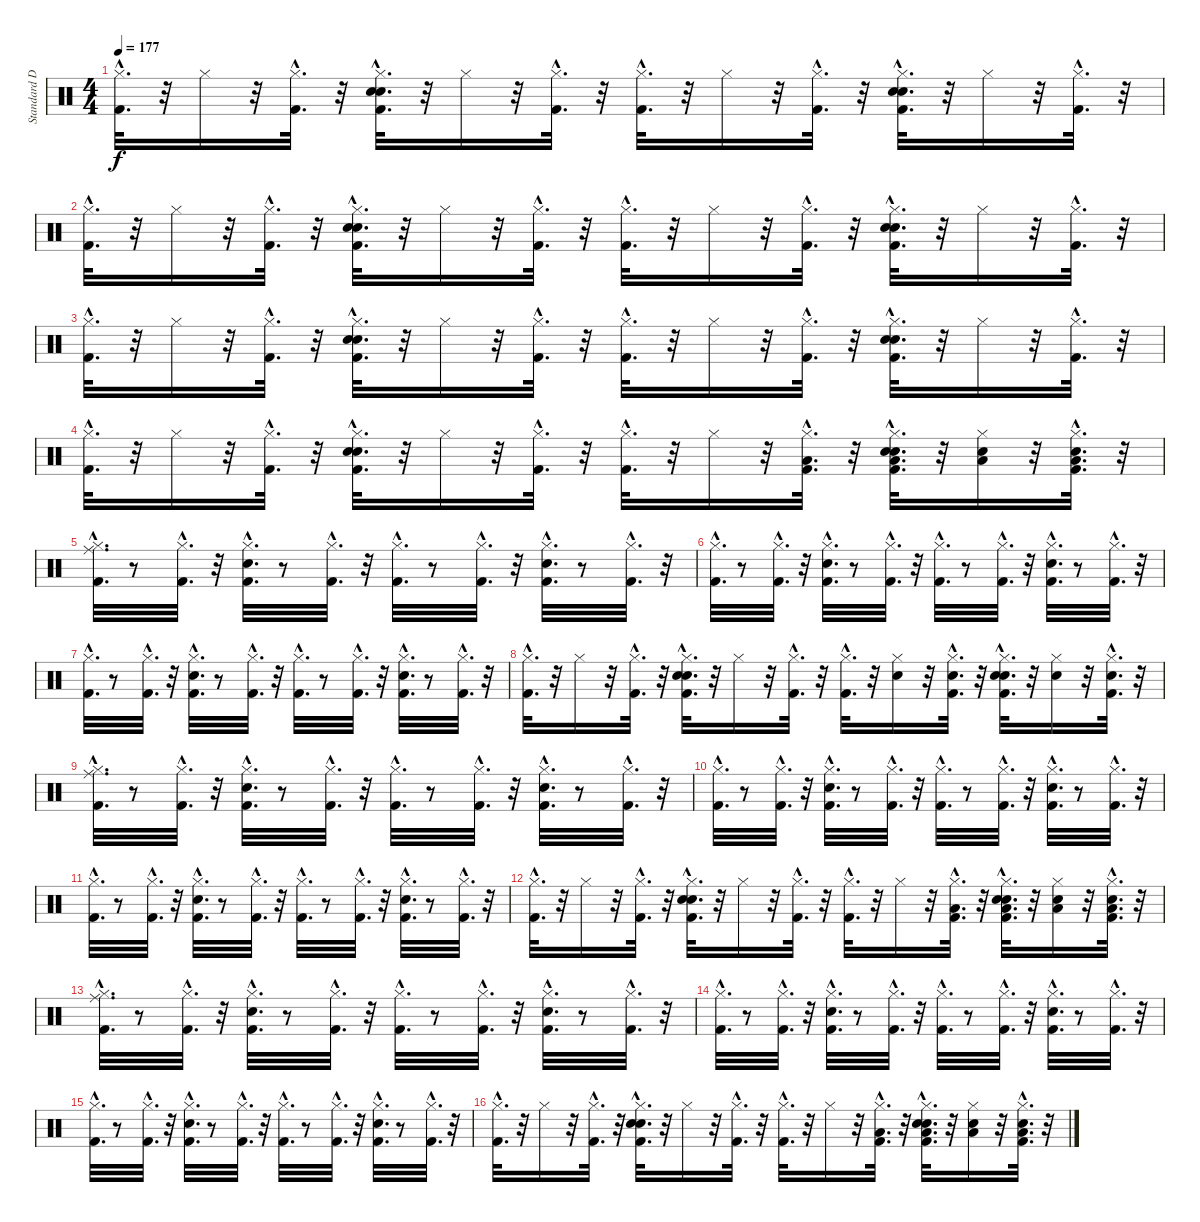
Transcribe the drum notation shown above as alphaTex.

\track ("Standard Drums" "Standard D") {instrument percussion}
\staff {score}
\articulation defaults
\ts (4 4)
\tempo 177
\clef neutral
\ks c
("Kick (hit) 2"{hac} "Hi-Hat (closed)"{hac}).32{d dy f} r.32 "Hi-Hat (closed)".16 r.32 ("Kick (hit) 2"{hac} "Hi-Hat (closed)"{hac}).32{d} r.32 ("Kick (hit) 2"{hac} "Snare (hit) 2"{hac} "Hi-Hat (closed)"{hac} "Hand Clap (hit)"{hac}).32{d} r.32 "Hi-Hat (closed)".16 r.32 ("Kick (hit) 2"{hac} "Hi-Hat (closed)"{hac}).32{d} r.32 ("Kick (hit) 2"{hac} "Hi-Hat (closed)"{hac}).32{d} r.32 "Hi-Hat (closed)".16 r.32 ("Kick (hit) 2"{hac} "Hi-Hat (closed)"{hac}).32{d} r.32 ("Kick (hit) 2"{hac} "Snare (hit) 2"{hac} "Hi-Hat (closed)"{hac} "Hand Clap (hit)"{hac}).32{d} r.32 "Hi-Hat (closed)".16 r.32 ("Kick (hit) 2"{hac} "Hi-Hat (closed)"{hac}).32{d} r.32 |
("Kick (hit) 2"{hac} "Hi-Hat (closed)"{hac}).32{d} r.32 "Hi-Hat (closed)".16 r.32 ("Kick (hit) 2"{hac} "Hi-Hat (closed)"{hac}).32{d} r.32 ("Kick (hit) 2"{hac} "Snare (hit) 2"{hac} "Hi-Hat (closed)"{hac} "Hand Clap (hit)"{hac}).32{d} r.32 "Hi-Hat (closed)".16 r.32 ("Kick (hit) 2"{hac} "Hi-Hat (closed)"{hac}).32{d} r.32 ("Kick (hit) 2"{hac} "Hi-Hat (closed)"{hac}).32{d} r.32 "Hi-Hat (closed)".16 r.32 ("Kick (hit) 2"{hac} "Hi-Hat (closed)"{hac}).32{d} r.32 ("Kick (hit) 2"{hac} "Snare (hit) 2"{hac} "Hi-Hat (closed)"{hac} "Hand Clap (hit)"{hac}).32{d} r.32 "Hi-Hat (closed)".16 r.32 ("Kick (hit) 2"{hac} "Hi-Hat (closed)"{hac}).32{d} r.32 |
("Kick (hit) 2"{hac} "Hi-Hat (closed)"{hac}).32{d} r.32 "Hi-Hat (closed)".16 r.32 ("Kick (hit) 2"{hac} "Hi-Hat (closed)"{hac}).32{d} r.32 ("Kick (hit) 2"{hac} "Snare (hit) 2"{hac} "Hi-Hat (closed)"{hac} "Hand Clap (hit)"{hac}).32{d} r.32 "Hi-Hat (closed)".16 r.32 ("Kick (hit) 2"{hac} "Hi-Hat (closed)"{hac}).32{d} r.32 ("Kick (hit) 2"{hac} "Hi-Hat (closed)"{hac}).32{d} r.32 "Hi-Hat (closed)".16 r.32 ("Kick (hit) 2"{hac} "Hi-Hat (closed)"{hac}).32{d} r.32 ("Kick (hit) 2"{hac} "Snare (hit) 2"{hac} "Hi-Hat (closed)"{hac} "Hand Clap (hit)"{hac}).32{d} r.32 "Hi-Hat (closed)".16 r.32 ("Kick (hit) 2"{hac} "Hi-Hat (closed)"{hac}).32{d} r.32 |
("Kick (hit) 2"{hac} "Hi-Hat (closed)"{hac}).32{d} r.32 "Hi-Hat (closed)".16 r.32 ("Kick (hit) 2"{hac} "Hi-Hat (closed)"{hac}).32{d} r.32 ("Kick (hit) 2"{hac} "Snare (hit) 2"{hac} "Hi-Hat (closed)"{hac} "Hand Clap (hit)"{hac}).32{d} r.32 "Hi-Hat (closed)".16 r.32 ("Kick (hit) 2"{hac} "Hi-Hat (closed)"{hac}).32{d} r.32 ("Kick (hit) 2"{hac} "Hi-Hat (closed)"{hac}).32{d} r.32 "Hi-Hat (closed)".16 r.32 ("Kick (hit) 2"{hac} "Hi-Hat (closed)"{hac} "Low Tom (hit)"{hac}).32{d} r.32 ("Kick (hit) 2"{hac} "Snare (hit) 2"{hac} "Hi-Hat (closed)"{hac} "Low Tom (hit)"{hac} "Hand Clap (hit)"{hac}).32{d} r.32 ("Snare (hit) 2" "Hi-Hat (closed)" "Low Tom (hit)").16 r.32 ("Kick (hit) 2"{hac} "Snare (hit) 2"{hac} "Hi-Hat (closed)"{hac} "Low Tom (hit)"{hac}).32{d} r.32 |
("Kick (hit) 2"{hac} "Hi-Hat (closed)"{hac} "Ride (middle)"{hac}).32{d} r.8 ("Kick (hit) 2"{hac} "Hi-Hat (closed)"{hac}).32{d} r.32 ("Kick (hit) 2"{hac} "Snare (hit) 2"{hac} "Hi-Hat (closed)"{hac}).32{d} r.8 ("Kick (hit) 2"{hac} "Hi-Hat (closed)"{hac}).32{d} r.32 ("Kick (hit) 2"{hac} "Hi-Hat (closed)"{hac}).32{d} r.8 ("Kick (hit) 2"{hac} "Hi-Hat (closed)"{hac}).32{d} r.32 ("Kick (hit) 2"{hac} "Snare (hit) 2"{hac} "Hi-Hat (closed)"{hac}).32{d} r.8 ("Kick (hit) 2"{hac} "Hi-Hat (closed)"{hac}).32{d} r.32 |
("Kick (hit) 2"{hac} "Hi-Hat (closed)"{hac}).32{d} r.8 ("Kick (hit) 2"{hac} "Hi-Hat (closed)"{hac}).32{d} r.32 ("Kick (hit) 2"{hac} "Snare (hit) 2"{hac} "Hi-Hat (closed)"{hac}).32{d} r.8 ("Kick (hit) 2"{hac} "Hi-Hat (closed)"{hac}).32{d} r.32 ("Kick (hit) 2"{hac} "Hi-Hat (closed)"{hac}).32{d} r.8 ("Kick (hit) 2"{hac} "Hi-Hat (closed)"{hac}).32{d} r.32 ("Kick (hit) 2"{hac} "Snare (hit) 2"{hac} "Hi-Hat (closed)"{hac}).32{d} r.8 ("Kick (hit) 2"{hac} "Hi-Hat (closed)"{hac}).32{d} r.32 |
("Kick (hit) 2"{hac} "Hi-Hat (closed)"{hac}).32{d} r.8 ("Kick (hit) 2"{hac} "Hi-Hat (closed)"{hac}).32{d} r.32 ("Kick (hit) 2"{hac} "Snare (hit) 2"{hac} "Hi-Hat (closed)"{hac}).32{d} r.8 ("Kick (hit) 2"{hac} "Hi-Hat (closed)"{hac}).32{d} r.32 ("Kick (hit) 2"{hac} "Hi-Hat (closed)"{hac}).32{d} r.8 ("Kick (hit) 2"{hac} "Hi-Hat (closed)"{hac}).32{d} r.32 ("Kick (hit) 2"{hac} "Snare (hit) 2"{hac} "Hi-Hat (closed)"{hac}).32{d} r.8 ("Kick (hit) 2"{hac} "Hi-Hat (closed)"{hac}).32{d} r.32 |
("Kick (hit) 2"{hac} "Hi-Hat (closed)"{hac}).32{d} r.32 "Hi-Hat (closed)".16 r.32 ("Kick (hit) 2"{hac} "Hi-Hat (closed)"{hac}).32{d} r.32 ("Kick (hit) 2"{hac} "Snare (hit) 2"{hac} "Hi-Hat (closed)"{hac} "Hand Clap (hit)"{hac}).32{d} r.32 "Hi-Hat (closed)".16 r.32 ("Kick (hit) 2"{hac} "Hi-Hat (closed)"{hac}).32{d} r.32 ("Kick (hit) 2"{hac} "Hi-Hat (closed)"{hac}).32{d} r.32 ("Snare (hit) 2" "Hi-Hat (closed)").16 r.32 ("Kick (hit) 2"{hac} "Snare (hit) 2"{hac} "Hi-Hat (closed)"{hac}).32{d} r.32 ("Kick (hit) 2"{hac} "Snare (hit) 2"{hac} "Hi-Hat (closed)"{hac} "Hand Clap (hit)"{hac}).32{d} r.32 ("Snare (hit) 2" "Hi-Hat (closed)").16 r.32 ("Kick (hit) 2"{hac} "Snare (hit) 2"{hac} "Hi-Hat (closed)"{hac}).32{d} r.32 |
("Kick (hit) 2"{hac} "Hi-Hat (closed)"{hac} "Ride (middle)"{hac}).32{d} r.8 ("Kick (hit) 2"{hac} "Hi-Hat (closed)"{hac}).32{d} r.32 ("Kick (hit) 2"{hac} "Snare (hit) 2"{hac} "Hi-Hat (closed)"{hac}).32{d} r.8 ("Kick (hit) 2"{hac} "Hi-Hat (closed)"{hac}).32{d} r.32 ("Kick (hit) 2"{hac} "Hi-Hat (closed)"{hac}).32{d} r.8 ("Kick (hit) 2"{hac} "Hi-Hat (closed)"{hac}).32{d} r.32 ("Kick (hit) 2"{hac} "Snare (hit) 2"{hac} "Hi-Hat (closed)"{hac}).32{d} r.8 ("Kick (hit) 2"{hac} "Hi-Hat (closed)"{hac}).32{d} r.32 |
("Kick (hit) 2"{hac} "Hi-Hat (closed)"{hac}).32{d} r.8 ("Kick (hit) 2"{hac} "Hi-Hat (closed)"{hac}).32{d} r.32 ("Kick (hit) 2"{hac} "Snare (hit) 2"{hac} "Hi-Hat (closed)"{hac}).32{d} r.8 ("Kick (hit) 2"{hac} "Hi-Hat (closed)"{hac}).32{d} r.32 ("Kick (hit) 2"{hac} "Hi-Hat (closed)"{hac}).32{d} r.8 ("Kick (hit) 2"{hac} "Hi-Hat (closed)"{hac}).32{d} r.32 ("Kick (hit) 2"{hac} "Snare (hit) 2"{hac} "Hi-Hat (closed)"{hac}).32{d} r.8 ("Kick (hit) 2"{hac} "Hi-Hat (closed)"{hac}).32{d} r.32 |
("Kick (hit) 2"{hac} "Hi-Hat (closed)"{hac}).32{d} r.8 ("Kick (hit) 2"{hac} "Hi-Hat (closed)"{hac}).32{d} r.32 ("Kick (hit) 2"{hac} "Snare (hit) 2"{hac} "Hi-Hat (closed)"{hac}).32{d} r.8 ("Kick (hit) 2"{hac} "Hi-Hat (closed)"{hac}).32{d} r.32 ("Kick (hit) 2"{hac} "Hi-Hat (closed)"{hac}).32{d} r.8 ("Kick (hit) 2"{hac} "Hi-Hat (closed)"{hac}).32{d} r.32 ("Kick (hit) 2"{hac} "Snare (hit) 2"{hac} "Hi-Hat (closed)"{hac}).32{d} r.8 ("Kick (hit) 2"{hac} "Hi-Hat (closed)"{hac}).32{d} r.32 |
("Kick (hit) 2"{hac} "Hi-Hat (closed)"{hac}).32{d} r.32 "Hi-Hat (closed)".16 r.32 ("Kick (hit) 2"{hac} "Hi-Hat (closed)"{hac}).32{d} r.32 ("Kick (hit) 2"{hac} "Snare (hit) 2"{hac} "Hi-Hat (closed)"{hac} "Hand Clap (hit)"{hac}).32{d} r.32 "Hi-Hat (closed)".16 r.32 ("Kick (hit) 2"{hac} "Hi-Hat (closed)"{hac}).32{d} r.32 ("Kick (hit) 2"{hac} "Hi-Hat (closed)"{hac}).32{d} r.32 "Hi-Hat (closed)".16 r.32 ("Kick (hit) 2"{hac} "Hi-Hat (closed)"{hac} "Low Tom (hit)"{hac}).32{d} r.32 ("Kick (hit) 2"{hac} "Snare (hit) 2"{hac} "Hi-Hat (closed)"{hac} "Low Tom (hit)"{hac} "Hand Clap (hit)"{hac}).32{d} r.32 ("Snare (hit) 2" "Hi-Hat (closed)" "Low Tom (hit)").16 r.32 ("Kick (hit) 2"{hac} "Snare (hit) 2"{hac} "Hi-Hat (closed)"{hac} "Low Tom (hit)"{hac}).32{d} r.32 |
("Kick (hit) 2"{hac} "Hi-Hat (closed)"{hac} "Ride (middle)"{hac}).32{d} r.8 ("Kick (hit) 2"{hac} "Hi-Hat (closed)"{hac}).32{d} r.32 ("Kick (hit) 2"{hac} "Snare (hit) 2"{hac} "Hi-Hat (closed)"{hac}).32{d} r.8 ("Kick (hit) 2"{hac} "Hi-Hat (closed)"{hac}).32{d} r.32 ("Kick (hit) 2"{hac} "Hi-Hat (closed)"{hac}).32{d} r.8 ("Kick (hit) 2"{hac} "Hi-Hat (closed)"{hac}).32{d} r.32 ("Kick (hit) 2"{hac} "Snare (hit) 2"{hac} "Hi-Hat (closed)"{hac}).32{d} r.8 ("Kick (hit) 2"{hac} "Hi-Hat (closed)"{hac}).32{d} r.32 |
("Kick (hit) 2"{hac} "Hi-Hat (closed)"{hac}).32{d} r.8 ("Kick (hit) 2"{hac} "Hi-Hat (closed)"{hac}).32{d} r.32 ("Kick (hit) 2"{hac} "Snare (hit) 2"{hac} "Hi-Hat (closed)"{hac}).32{d} r.8 ("Kick (hit) 2"{hac} "Hi-Hat (closed)"{hac}).32{d} r.32 ("Kick (hit) 2"{hac} "Hi-Hat (closed)"{hac}).32{d} r.8 ("Kick (hit) 2"{hac} "Hi-Hat (closed)"{hac}).32{d} r.32 ("Kick (hit) 2"{hac} "Snare (hit) 2"{hac} "Hi-Hat (closed)"{hac}).32{d} r.8 ("Kick (hit) 2"{hac} "Hi-Hat (closed)"{hac}).32{d} r.32 |
("Kick (hit) 2"{hac} "Hi-Hat (closed)"{hac}).32{d} r.8 ("Kick (hit) 2"{hac} "Hi-Hat (closed)"{hac}).32{d} r.32 ("Kick (hit) 2"{hac} "Snare (hit) 2"{hac} "Hi-Hat (closed)"{hac}).32{d} r.8 ("Kick (hit) 2"{hac} "Hi-Hat (closed)"{hac}).32{d} r.32 ("Kick (hit) 2"{hac} "Hi-Hat (closed)"{hac}).32{d} r.8 ("Kick (hit) 2"{hac} "Hi-Hat (closed)"{hac}).32{d} r.32 ("Kick (hit) 2"{hac} "Snare (hit) 2"{hac} "Hi-Hat (closed)"{hac}).32{d} r.8 ("Kick (hit) 2"{hac} "Hi-Hat (closed)"{hac}).32{d} r.32 |
("Kick (hit) 2"{hac} "Hi-Hat (closed)"{hac}).32{d} r.32 "Hi-Hat (closed)".16 r.32 ("Kick (hit) 2"{hac} "Hi-Hat (closed)"{hac}).32{d} r.32 ("Kick (hit) 2"{hac} "Snare (hit) 2"{hac} "Hi-Hat (closed)"{hac} "Hand Clap (hit)"{hac}).32{d} r.32 "Hi-Hat (closed)".16 r.32 ("Kick (hit) 2"{hac} "Hi-Hat (closed)"{hac}).32{d} r.32 ("Kick (hit) 2"{hac} "Hi-Hat (closed)"{hac}).32{d} r.32 "Hi-Hat (closed)".16 r.32 ("Kick (hit) 2"{hac} "Hi-Hat (closed)"{hac} "Low Tom (hit)"{hac}).32{d} r.32 ("Kick (hit) 2"{hac} "Snare (hit) 2"{hac} "Hi-Hat (closed)"{hac} "Low Tom (hit)"{hac} "Hand Clap (hit)"{hac}).32{d} r.32 ("Snare (hit) 2" "Hi-Hat (closed)" "Low Tom (hit)").16 r.32 ("Kick (hit) 2"{hac} "Snare (hit) 2"{hac} "Hi-Hat (closed)"{hac} "Low Tom (hit)"{hac}).32{d} r.32
